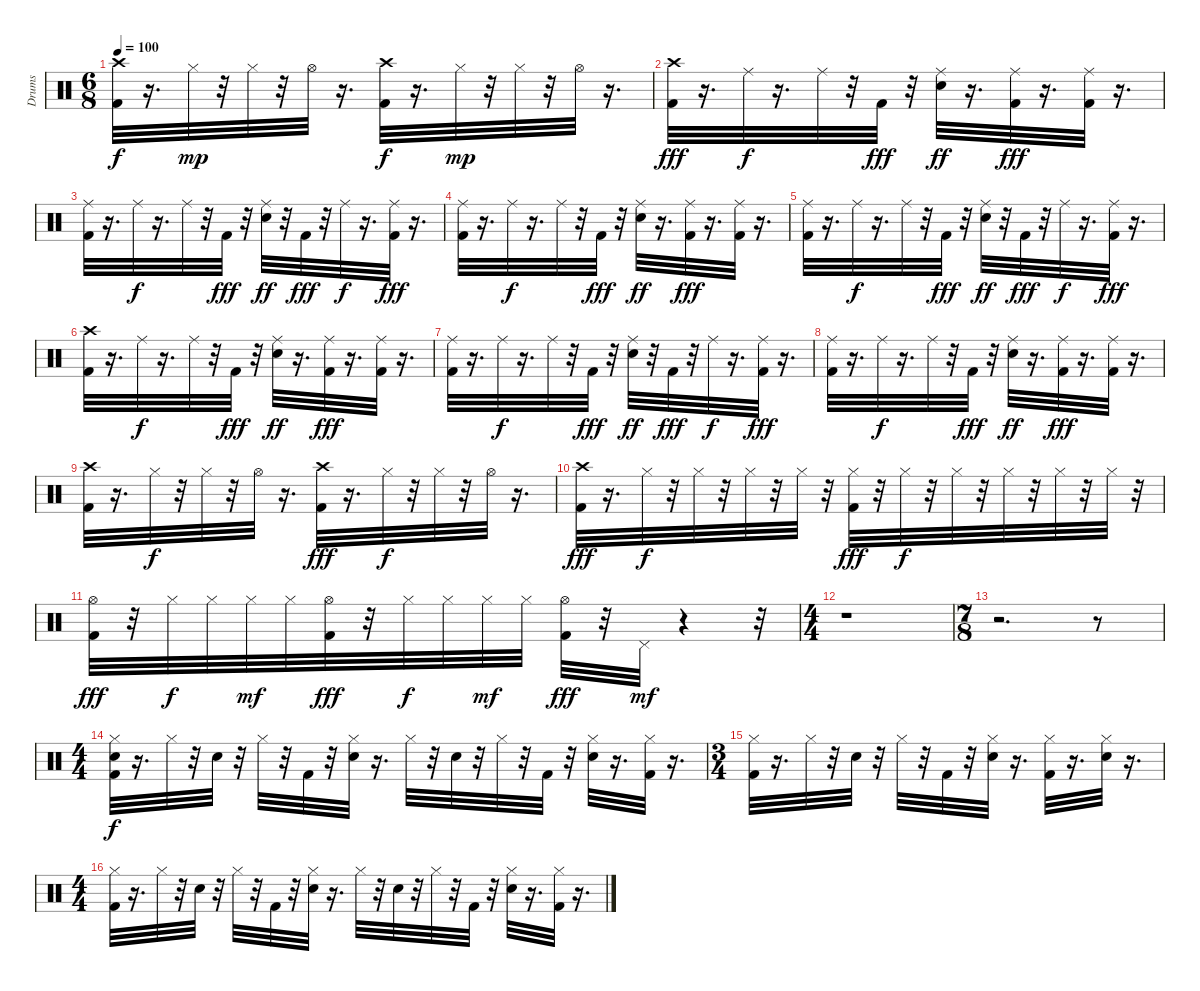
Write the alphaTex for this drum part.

\track ("Drums               " "Drums     ") {instrument percussion}
\staff {score}
\articulation defaults
\ts (6 8)
\tempo 100
\clef neutral
\ks c
("Kick (hit) 2" "Crash high (hit)").32{dy f} r.16{d} "Hi-Hat (closed)".32{dy mp} r.32 "Hi-Hat (closed)".32 r.32 "Hi-Hat (open)".32 r.16{d} ("Kick (hit) 2" "Crash high (hit)").32{dy f} r.16{d} "Hi-Hat (closed)".32{dy mp} r.32 "Hi-Hat (closed)".32 r.32 "Hi-Hat (open)".32 r.16{d} |
("Kick (hit) 2" "Crash high (hit)").32{dy fff} r.16{d} "Ride (middle)".32{dy f} r.16{d} "Ride (middle)".32 r.32 "Kick (hit) 2".32{dy fff} r.32 ("Electric Snare (hit)" "Ride (middle)").32{dy ff} r.16{d} ("Kick (hit) 2" "Ride (middle)").32{dy fff} r.16{d} ("Kick (hit) 2" "Ride (middle)").32 r.16{d} |
("Ride (middle)" "Kick (hit) 2").32 r.16{d} "Ride (middle)".32{dy f} r.16{d} "Ride (middle)".32 r.32 "Kick (hit) 2".32{dy fff} r.32 ("Electric Snare (hit)" "Ride (middle)").32{dy ff} r.32 "Kick (hit) 2".32{dy fff} r.32 "Ride (middle)".32{dy f} r.16{d} ("Kick (hit) 2" "Ride (middle)").32{dy fff} r.16{d} |
("Ride (middle)" "Kick (hit) 2").32 r.16{d} "Ride (middle)".32{dy f} r.16{d} "Ride (middle)".32 r.32 "Kick (hit) 2".32{dy fff} r.32 ("Electric Snare (hit)" "Ride (middle)").32{dy ff} r.16{d} ("Kick (hit) 2" "Ride (middle)").32{dy fff} r.16{d} ("Kick (hit) 2" "Ride (middle)").32 r.16{d} |
("Ride (middle)" "Kick (hit) 2").32 r.16{d} "Ride (middle)".32{dy f} r.16{d} "Ride (middle)".32 r.32 "Kick (hit) 2".32{dy fff} r.32 ("Electric Snare (hit)" "Ride (middle)").32{dy ff} r.32 "Kick (hit) 2".32{dy fff} r.32 "Ride (middle)".32{dy f} r.16{d} ("Kick (hit) 2" "Ride (middle)").32{dy fff} r.16{d} |
("Kick (hit) 2" "Crash high (hit)").32 r.16{d} "Ride (middle)".32{dy f} r.16{d} "Ride (middle)".32 r.32 "Kick (hit) 2".32{dy fff} r.32 ("Electric Snare (hit)" "Ride (middle)").32{dy ff} r.16{d} ("Kick (hit) 2" "Ride (middle)").32{dy fff} r.16{d} ("Kick (hit) 2" "Ride (middle)").32 r.16{d} |
("Ride (middle)" "Kick (hit) 2").32 r.16{d} "Ride (middle)".32{dy f} r.16{d} "Ride (middle)".32 r.32 "Kick (hit) 2".32{dy fff} r.32 ("Electric Snare (hit)" "Ride (middle)").32{dy ff} r.32 "Kick (hit) 2".32{dy fff} r.32 "Ride (middle)".32{dy f} r.16{d} ("Kick (hit) 2" "Ride (middle)").32{dy fff} r.16{d} |
("Ride (middle)" "Kick (hit) 2").32 r.16{d} "Ride (middle)".32{dy f} r.16{d} "Ride (middle)".32 r.32 "Kick (hit) 2".32{dy fff} r.32 ("Electric Snare (hit)" "Ride (middle)").32{dy ff} r.16{d} ("Kick (hit) 2" "Ride (middle)").32{dy fff} r.16{d} ("Kick (hit) 2" "Ride (middle)").32 r.16{d} |
("Crash high (hit)" "Kick (hit) 2").32 r.16{d} "Hi-Hat (closed)".32{dy f} r.32 "Hi-Hat (closed)".32 r.32 "Hi-Hat (open)".32 r.16{d} ("Kick (hit) 2" "Crash high (hit)").32{dy fff} r.16{d} "Hi-Hat (closed)".32{dy f} r.32 "Hi-Hat (closed)".32 r.32 "Hi-Hat (open)".32 r.16{d} |
("Crash high (hit)" "Kick (hit) 2").32{dy fff} r.16{d} "Hi-Hat (closed)".32{dy f} r.32 "Hi-Hat (closed)".32 r.32 "Hi-Hat (closed)".32 r.32 "Hi-Hat (closed)".32 r.32 ("Hi-Hat (closed)" "Kick (hit) 2").32{dy fff} r.32 "Hi-Hat (closed)".32{dy f} r.32 "Hi-Hat (closed)".32 r.32 "Hi-Hat (closed)".32 r.32 "Hi-Hat (closed)".32 r.32 "Hi-Hat (closed)".32 r.32 |
("Kick (hit) 2" "Hi-Hat (open)").32{dy fff} r.32 "Hi-Hat (closed)".32{dy f} "Hi-Hat (closed)".32 "Hi-Hat (closed)".32{dy mf} "Hi-Hat (closed)".32 ("Kick (hit) 2" "Hi-Hat (open)").32{dy fff} r.32 "Hi-Hat (closed)".32{dy f} "Hi-Hat (closed)".32 "Hi-Hat (closed)".32{dy mf} "Hi-Hat (closed)".32 ("Kick (hit) 2" "Hi-Hat (open)").32{dy fff} r.32 "Pedal Hi-Hat (hit)".32{dy mf} r.4 r.32 |
\ts (4 4)
r.1 |
\ts (7 8)
r.2{d} r.8 |
\ts (4 4)
("Hi-Hat (closed)" "Electric Snare (hit)" "Kick (hit) 2").32{dy f} r.16{d} "Hi-Hat (closed)".32 r.32 "Electric Snare (hit)".32 r.32 "Hi-Hat (closed)".32 r.32 "Kick (hit) 2".32 r.32 ("Hi-Hat (closed)" "Electric Snare (hit)").32 r.16{d} "Hi-Hat (closed)".32 r.32 "Electric Snare (hit)".32 r.32 "Hi-Hat (closed)".32 r.32 "Kick (hit) 2".32 r.32 ("Hi-Hat (closed)" "Electric Snare (hit)").32 r.16{d} ("Hi-Hat (closed)" "Kick (hit) 2").32 r.16{d} |
\ts (3 4)
("Hi-Hat (closed)" "Kick (hit) 2").32 r.16{d} "Hi-Hat (closed)".32 r.32 "Electric Snare (hit)".32 r.32 "Hi-Hat (closed)".32 r.32 "Kick (hit) 2".32 r.32 ("Hi-Hat (closed)" "Electric Snare (hit)").32 r.16{d} ("Hi-Hat (closed)" "Kick (hit) 2").32 r.16{d} ("Hi-Hat (closed)" "Electric Snare (hit)").32 r.16{d} |
\ts (4 4)
("Hi-Hat (closed)" "Kick (hit) 2").32 r.16{d} "Hi-Hat (closed)".32 r.32 "Electric Snare (hit)".32 r.32 "Hi-Hat (closed)".32 r.32 "Kick (hit) 2".32 r.32 ("Hi-Hat (closed)" "Electric Snare (hit)").32 r.16{d} "Hi-Hat (closed)".32 r.32 "Electric Snare (hit)".32 r.32 "Hi-Hat (closed)".32 r.32 "Kick (hit) 2".32 r.32 ("Hi-Hat (closed)" "Electric Snare (hit)").32 r.16{d} ("Hi-Hat (closed)" "Kick (hit) 2").32 r.16{d}
